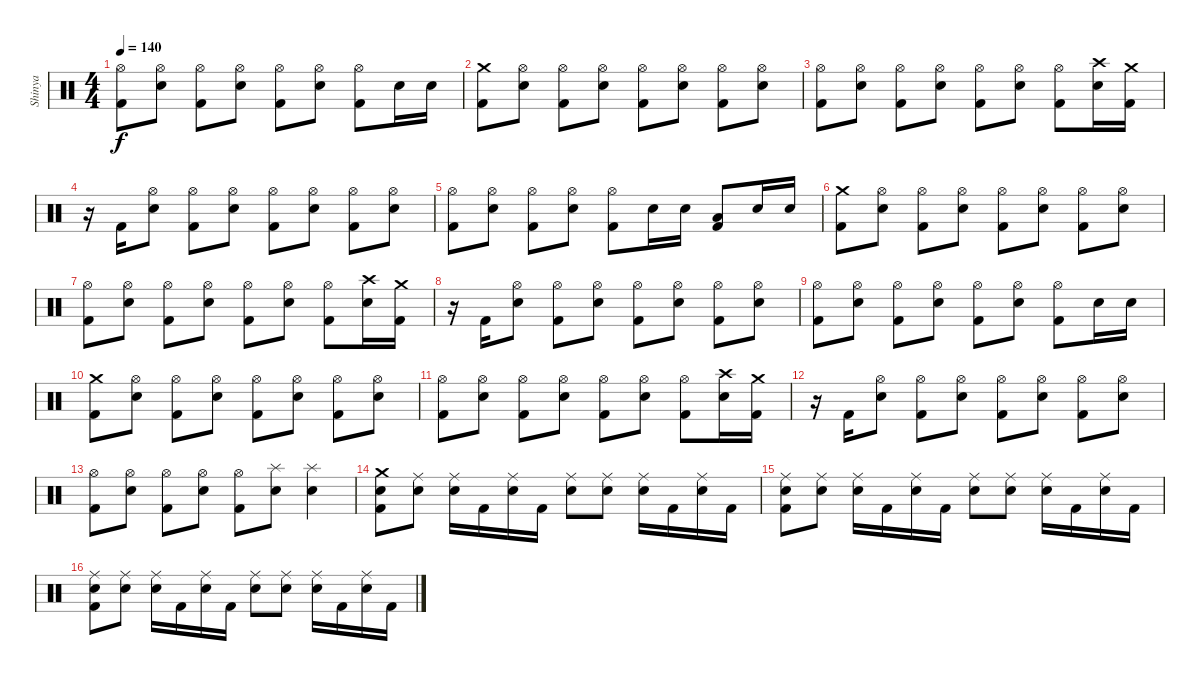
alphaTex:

\track ("Shinya" "Shinya") {instrument percussion}
\staff {score}
\articulation defaults
\ts (4 4)
\tempo 140
\clef neutral
\ks c
("Hi-Hat (open)" "Kick (hit) 2").8{dy f} ("Hi-Hat (open)" "Snare (hit) 2").8 ("Hi-Hat (open)" "Kick (hit) 2").8 ("Hi-Hat (open)" "Snare (hit) 2").8 ("Hi-Hat (open)" "Kick (hit) 2").8 ("Hi-Hat (open)" "Snare (hit) 2").8 ("Hi-Hat (open)" "Kick (hit) 2").8 "Snare (hit) 2".16 "Snare (hit) 2".16 |
("Crash medium (hit)" "Kick (hit) 2").8 ("Hi-Hat (open)" "Snare (hit) 2").8 ("Hi-Hat (open)" "Kick (hit) 2").8 ("Hi-Hat (open)" "Snare (hit) 2").8 ("Hi-Hat (open)" "Kick (hit) 2").8 ("Hi-Hat (open)" "Snare (hit) 2").8 ("Hi-Hat (open)" "Kick (hit) 2").8 ("Hi-Hat (open)" "Snare (hit) 2").8 |
("Hi-Hat (open)" "Kick (hit) 2").8 ("Hi-Hat (open)" "Snare (hit) 2").8 ("Hi-Hat (open)" "Kick (hit) 2").8 ("Hi-Hat (open)" "Snare (hit) 2").8 ("Hi-Hat (open)" "Kick (hit) 2").8 ("Hi-Hat (open)" "Snare (hit) 2").8 ("Hi-Hat (open)" "Kick (hit) 2").8 ("Crash high (hit)" "Snare (hit) 2").16 ("Crash medium (hit)" "Kick (hit) 2").16 |
r.16 "Kick (hit) 2".16 ("Hi-Hat (open)" "Snare (hit) 2").8 ("Hi-Hat (open)" "Kick (hit) 2").8 ("Hi-Hat (open)" "Snare (hit) 2").8 ("Hi-Hat (open)" "Kick (hit) 2").8 ("Hi-Hat (open)" "Snare (hit) 2").8 ("Hi-Hat (open)" "Kick (hit) 2").8 ("Hi-Hat (open)" "Snare (hit) 2").8 |
("Hi-Hat (open)" "Kick (hit) 2").8 ("Hi-Hat (open)" "Snare (hit) 2").8 ("Hi-Hat (open)" "Kick (hit) 2").8 ("Hi-Hat (open)" "Snare (hit) 2").8 ("Hi-Hat (open)" "Kick (hit) 2").8 "Snare (hit) 2".16 "Snare (hit) 2".16 ("Low Tom (hit)" "Kick (hit) 2").8 "Snare (hit) 2".16 "Snare (hit) 2".16 |
("Crash medium (hit)" "Kick (hit) 2").8 ("Hi-Hat (open)" "Snare (hit) 2").8 ("Hi-Hat (open)" "Kick (hit) 2").8 ("Hi-Hat (open)" "Snare (hit) 2").8 ("Hi-Hat (open)" "Kick (hit) 2").8 ("Hi-Hat (open)" "Snare (hit) 2").8 ("Hi-Hat (open)" "Kick (hit) 2").8 ("Hi-Hat (open)" "Snare (hit) 2").8 |
("Hi-Hat (open)" "Kick (hit) 2").8 ("Hi-Hat (open)" "Snare (hit) 2").8 ("Hi-Hat (open)" "Kick (hit) 2").8 ("Hi-Hat (open)" "Snare (hit) 2").8 ("Hi-Hat (open)" "Kick (hit) 2").8 ("Hi-Hat (open)" "Snare (hit) 2").8 ("Hi-Hat (open)" "Kick (hit) 2").8 ("Crash high (hit)" "Snare (hit) 2").16 ("Crash medium (hit)" "Kick (hit) 2").16 |
r.16 "Kick (hit) 2".16 ("Hi-Hat (open)" "Snare (hit) 2").8 ("Hi-Hat (open)" "Kick (hit) 2").8 ("Hi-Hat (open)" "Snare (hit) 2").8 ("Hi-Hat (open)" "Kick (hit) 2").8 ("Hi-Hat (open)" "Snare (hit) 2").8 ("Hi-Hat (open)" "Kick (hit) 2").8 ("Hi-Hat (open)" "Snare (hit) 2").8 |
("Hi-Hat (open)" "Kick (hit) 2").8 ("Hi-Hat (open)" "Snare (hit) 2").8 ("Hi-Hat (open)" "Kick (hit) 2").8 ("Hi-Hat (open)" "Snare (hit) 2").8 ("Hi-Hat (open)" "Kick (hit) 2").8 ("Hi-Hat (open)" "Snare (hit) 2").8 ("Hi-Hat (open)" "Kick (hit) 2").8 "Snare (hit) 2".16 "Snare (hit) 2".16 |
("Crash medium (hit)" "Kick (hit) 2").8 ("Hi-Hat (open)" "Snare (hit) 2").8 ("Hi-Hat (open)" "Kick (hit) 2").8 ("Hi-Hat (open)" "Snare (hit) 2").8 ("Hi-Hat (open)" "Kick (hit) 2").8 ("Hi-Hat (open)" "Snare (hit) 2").8 ("Hi-Hat (open)" "Kick (hit) 2").8 ("Hi-Hat (open)" "Snare (hit) 2").8 |
("Hi-Hat (open)" "Kick (hit) 2").8 ("Hi-Hat (open)" "Snare (hit) 2").8 ("Hi-Hat (open)" "Kick (hit) 2").8 ("Hi-Hat (open)" "Snare (hit) 2").8 ("Hi-Hat (open)" "Kick (hit) 2").8 ("Hi-Hat (open)" "Snare (hit) 2").8 ("Hi-Hat (open)" "Kick (hit) 2").8 ("Crash high (hit)" "Snare (hit) 2").16 ("Crash medium (hit)" "Kick (hit) 2").16 |
r.16 "Kick (hit) 2".16 ("Hi-Hat (open)" "Snare (hit) 2").8 ("Hi-Hat (open)" "Kick (hit) 2").8 ("Hi-Hat (open)" "Snare (hit) 2").8 ("Hi-Hat (open)" "Kick (hit) 2").8 ("Hi-Hat (open)" "Snare (hit) 2").8 ("Hi-Hat (open)" "Kick (hit) 2").8 ("Hi-Hat (open)" "Snare (hit) 2").8 |
("Hi-Hat (open)" "Kick (hit) 2").8 ("Hi-Hat (open)" "Snare (hit) 2").8 ("Hi-Hat (open)" "Kick (hit) 2").8 ("Hi-Hat (open)" "Snare (hit) 2").8 ("Hi-Hat (open)" "Kick (hit) 2").8 ("Splash (hit)" "Snare (hit) 2").8 ("Splash (hit)" "Snare (hit) 2").4 |
("Crash medium (hit)" "Snare (hit) 2" "Kick (hit) 2").8 ("Ride (middle)" "Snare (hit) 2").8 ("Ride (middle)" "Snare (hit) 2").16 "Kick (hit) 2".16 ("Ride (middle)" "Snare (hit) 2").16 "Kick (hit) 2".16 ("Ride (middle)" "Snare (hit) 2").8 ("Ride (middle)" "Snare (hit) 2").8 ("Ride (middle)" "Snare (hit) 2").16 "Kick (hit) 2".16 ("Ride (middle)" "Snare (hit) 2").16 "Kick (hit) 2".16 |
("Ride (middle)" "Snare (hit) 2" "Kick (hit) 2").8 ("Ride (middle)" "Snare (hit) 2").8 ("Ride (middle)" "Snare (hit) 2").16 "Kick (hit) 2".16 ("Ride (middle)" "Snare (hit) 2").16 "Kick (hit) 2".16 ("Ride (middle)" "Snare (hit) 2").8 ("Ride (middle)" "Snare (hit) 2").8 ("Ride (middle)" "Snare (hit) 2").16 "Kick (hit) 2".16 ("Ride (middle)" "Snare (hit) 2").16 "Kick (hit) 2".16 |
("Ride (middle)" "Snare (hit) 2" "Kick (hit) 2").8 ("Ride (middle)" "Snare (hit) 2").8 ("Ride (middle)" "Snare (hit) 2").16 "Kick (hit) 2".16 ("Ride (middle)" "Snare (hit) 2").16 "Kick (hit) 2".16 ("Ride (middle)" "Snare (hit) 2").8 ("Ride (middle)" "Snare (hit) 2").8 ("Ride (middle)" "Snare (hit) 2").16 "Kick (hit) 2".16 ("Ride (middle)" "Snare (hit) 2").16 "Kick (hit) 2".16
